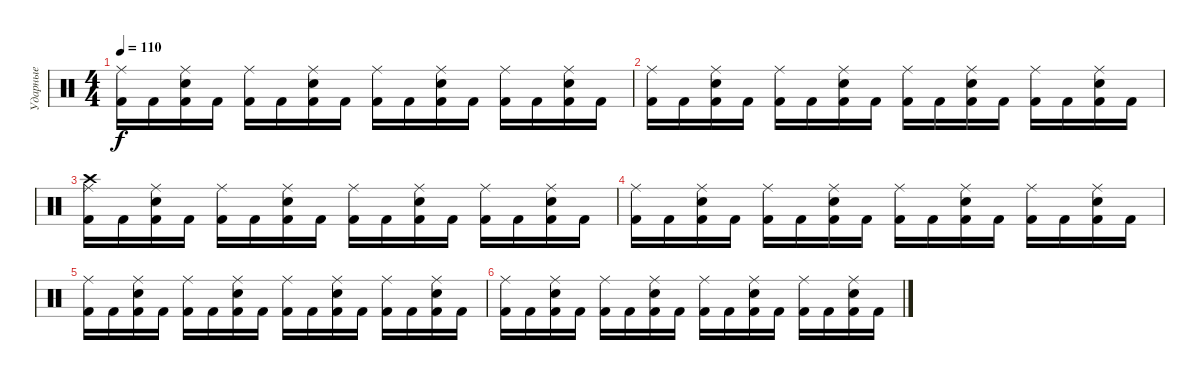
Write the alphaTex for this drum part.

\track ("Ударные" "Ударные") {instrument percussion}
\staff {score}
\articulation defaults
\ts (4 4)
\tempo 110
\clef neutral
\ks c
("Ride (middle)" "Kick (hit) 2").16{dy f} "Kick (hit) 2".16 ("Ride (middle)" "Snare (hit) 2" "Kick (hit) 2").16 "Kick (hit) 2".16 ("Ride (middle)" "Kick (hit) 2").16 "Kick (hit) 2".16 ("Ride (middle)" "Snare (hit) 2" "Kick (hit) 2").16 "Kick (hit) 2".16 ("Ride (middle)" "Kick (hit) 2").16 "Kick (hit) 2".16 ("Ride (middle)" "Snare (hit) 2" "Kick (hit) 2").16 "Kick (hit) 2".16 ("Ride (middle)" "Kick (hit) 2").16 "Kick (hit) 2".16 ("Ride (middle)" "Snare (hit) 2" "Kick (hit) 2").16 "Kick (hit) 2".16 |
("Ride (middle)" "Kick (hit) 2").16 "Kick (hit) 2".16 ("Ride (middle)" "Snare (hit) 2" "Kick (hit) 2").16 "Kick (hit) 2".16 ("Ride (middle)" "Kick (hit) 2").16 "Kick (hit) 2".16 ("Ride (middle)" "Snare (hit) 2" "Kick (hit) 2").16 "Kick (hit) 2".16 ("Ride (middle)" "Kick (hit) 2").16 "Kick (hit) 2".16 ("Ride (middle)" "Snare (hit) 2" "Kick (hit) 2").16 "Kick (hit) 2".16 ("Ride (middle)" "Kick (hit) 2").16 "Kick (hit) 2".16 ("Ride (middle)" "Snare (hit) 2" "Kick (hit) 2").16 "Kick (hit) 2".16 |
("Ride (middle)" "Crash high (hit)" "Kick (hit) 2").16 "Kick (hit) 2".16 ("Ride (middle)" "Snare (hit) 2" "Kick (hit) 2").16 "Kick (hit) 2".16 ("Ride (middle)" "Kick (hit) 2").16 "Kick (hit) 2".16 ("Ride (middle)" "Snare (hit) 2" "Kick (hit) 2").16 "Kick (hit) 2".16 ("Ride (middle)" "Kick (hit) 2").16 "Kick (hit) 2".16 ("Ride (middle)" "Snare (hit) 2" "Kick (hit) 2").16 "Kick (hit) 2".16 ("Ride (middle)" "Kick (hit) 2").16 "Kick (hit) 2".16 ("Ride (middle)" "Snare (hit) 2" "Kick (hit) 2").16 "Kick (hit) 2".16 |
("Ride (middle)" "Kick (hit) 2").16 "Kick (hit) 2".16 ("Ride (middle)" "Snare (hit) 2" "Kick (hit) 2").16 "Kick (hit) 2".16 ("Ride (middle)" "Kick (hit) 2").16 "Kick (hit) 2".16 ("Ride (middle)" "Snare (hit) 2" "Kick (hit) 2").16 "Kick (hit) 2".16 ("Ride (middle)" "Kick (hit) 2").16 "Kick (hit) 2".16 ("Ride (middle)" "Snare (hit) 2" "Kick (hit) 2").16 "Kick (hit) 2".16 ("Ride (middle)" "Kick (hit) 2").16 "Kick (hit) 2".16 ("Ride (middle)" "Snare (hit) 2" "Kick (hit) 2").16 "Kick (hit) 2".16 |
("Ride (middle)" "Kick (hit) 2").16 "Kick (hit) 2".16 ("Ride (middle)" "Snare (hit) 2" "Kick (hit) 2").16 "Kick (hit) 2".16 ("Ride (middle)" "Kick (hit) 2").16 "Kick (hit) 2".16 ("Ride (middle)" "Snare (hit) 2" "Kick (hit) 2").16 "Kick (hit) 2".16 ("Ride (middle)" "Kick (hit) 2").16 "Kick (hit) 2".16 ("Ride (middle)" "Snare (hit) 2" "Kick (hit) 2").16 "Kick (hit) 2".16 ("Ride (middle)" "Kick (hit) 2").16 "Kick (hit) 2".16 ("Ride (middle)" "Snare (hit) 2" "Kick (hit) 2").16 "Kick (hit) 2".16 |
("Ride (middle)" "Kick (hit) 2").16 "Kick (hit) 2".16 ("Ride (middle)" "Snare (hit) 2" "Kick (hit) 2").16 "Kick (hit) 2".16 ("Ride (middle)" "Kick (hit) 2").16 "Kick (hit) 2".16 ("Ride (middle)" "Snare (hit) 2" "Kick (hit) 2").16 "Kick (hit) 2".16 ("Ride (middle)" "Kick (hit) 2").16 "Kick (hit) 2".16 ("Ride (middle)" "Snare (hit) 2" "Kick (hit) 2").16 "Kick (hit) 2".16 ("Ride (middle)" "Kick (hit) 2").16 "Kick (hit) 2".16 ("Ride (middle)" "Snare (hit) 2" "Kick (hit) 2").16 "Kick (hit) 2".16
